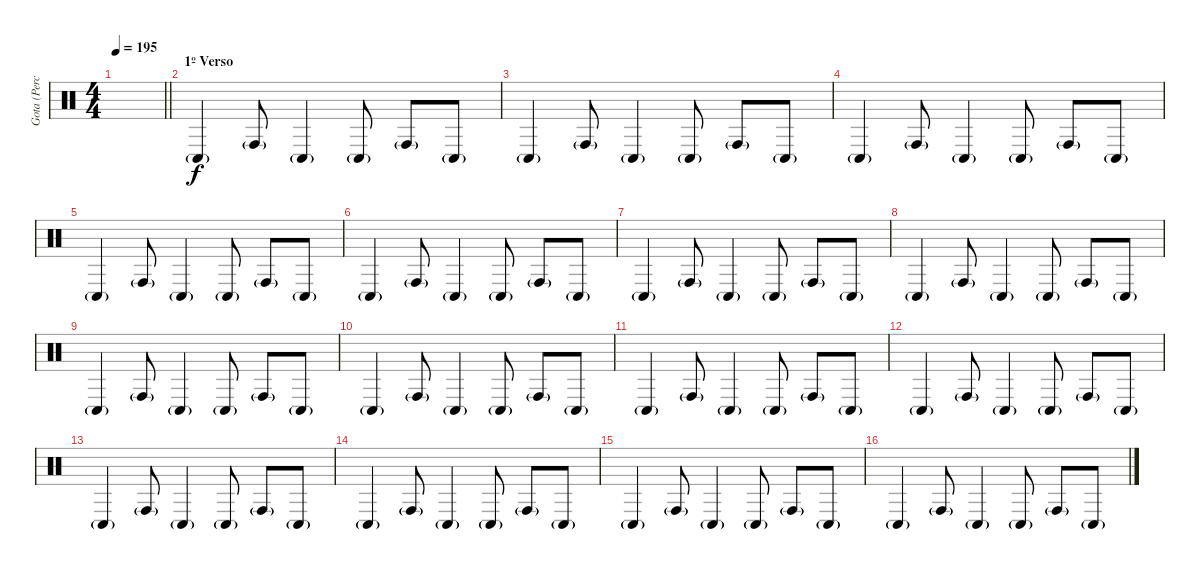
\track ("Gota (Percussion)" "Gota (Perc") {instrument percussion}
\staff {score}
\articulation defaults
\ts (4 4)
\tempo 195
\clef neutral
\barLineRight lightlight
\ks c
|
\section ("" "1º Verso")
"Conga low (hit)"{g}.4 "Conga high (hit)"{g}.8 "Conga low (hit)"{g}.4 "Conga low (hit)"{g}.8 "Conga high (hit)"{g}.8 "Conga low (hit)"{g}.8 |
"Conga low (hit)"{g}.4 "Conga high (hit)"{g}.8 "Conga low (hit)"{g}.4 "Conga low (hit)"{g}.8 "Conga high (hit)"{g}.8 "Conga low (hit)"{g}.8 |
"Conga low (hit)"{g}.4 "Conga high (hit)"{g}.8 "Conga low (hit)"{g}.4 "Conga low (hit)"{g}.8 "Conga high (hit)"{g}.8 "Conga low (hit)"{g}.8 |
"Conga low (hit)"{g}.4 "Conga high (hit)"{g}.8 "Conga low (hit)"{g}.4 "Conga low (hit)"{g}.8 "Conga high (hit)"{g}.8 "Conga low (hit)"{g}.8 |
"Conga low (hit)"{g}.4 "Conga high (hit)"{g}.8 "Conga low (hit)"{g}.4 "Conga low (hit)"{g}.8 "Conga high (hit)"{g}.8 "Conga low (hit)"{g}.8 |
"Conga low (hit)"{g}.4 "Conga high (hit)"{g}.8 "Conga low (hit)"{g}.4 "Conga low (hit)"{g}.8 "Conga high (hit)"{g}.8 "Conga low (hit)"{g}.8 |
"Conga low (hit)"{g}.4 "Conga high (hit)"{g}.8 "Conga low (hit)"{g}.4 "Conga low (hit)"{g}.8 "Conga high (hit)"{g}.8 "Conga low (hit)"{g}.8 |
"Conga low (hit)"{g}.4 "Conga high (hit)"{g}.8 "Conga low (hit)"{g}.4 "Conga low (hit)"{g}.8 "Conga high (hit)"{g}.8 "Conga low (hit)"{g}.8 |
"Conga low (hit)"{g}.4 "Conga high (hit)"{g}.8 "Conga low (hit)"{g}.4 "Conga low (hit)"{g}.8 "Conga high (hit)"{g}.8 "Conga low (hit)"{g}.8 |
"Conga low (hit)"{g}.4 "Conga high (hit)"{g}.8 "Conga low (hit)"{g}.4 "Conga low (hit)"{g}.8 "Conga high (hit)"{g}.8 "Conga low (hit)"{g}.8 |
"Conga low (hit)"{g}.4 "Conga high (hit)"{g}.8 "Conga low (hit)"{g}.4 "Conga low (hit)"{g}.8 "Conga high (hit)"{g}.8 "Conga low (hit)"{g}.8 |
"Conga low (hit)"{g}.4 "Conga high (hit)"{g}.8 "Conga low (hit)"{g}.4 "Conga low (hit)"{g}.8 "Conga high (hit)"{g}.8 "Conga low (hit)"{g}.8 |
"Conga low (hit)"{g}.4 "Conga high (hit)"{g}.8 "Conga low (hit)"{g}.4 "Conga low (hit)"{g}.8 "Conga high (hit)"{g}.8 "Conga low (hit)"{g}.8 |
"Conga low (hit)"{g}.4 "Conga high (hit)"{g}.8 "Conga low (hit)"{g}.4 "Conga low (hit)"{g}.8 "Conga high (hit)"{g}.8 "Conga low (hit)"{g}.8 |
"Conga low (hit)"{g}.4 "Conga high (hit)"{g}.8 "Conga low (hit)"{g}.4 "Conga low (hit)"{g}.8 "Conga high (hit)"{g}.8 "Conga low (hit)"{g}.8
